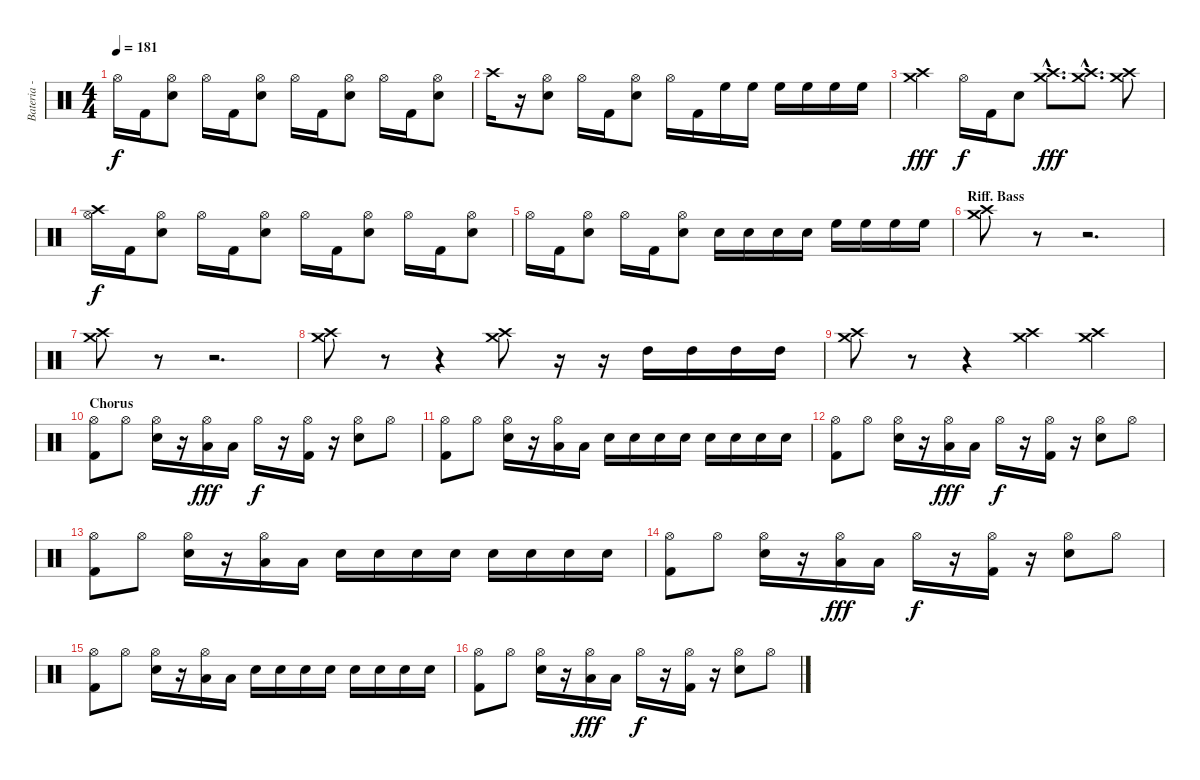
\track ("Bateria - Larzon" "Bateria - ") {instrument percussion}
\staff {score}
\articulation defaults
\ts (4 4)
\tempo 181
\clef neutral
\ks c "Hi-Hat (open)".16{dy f} "Kick (hit) 2".16
("Electric Snare (hit)" "Hi-Hat (open)").8 "Hi-Hat (open)".16 "Kick (hit) 2".16 ("Electric Snare (hit)" "Hi-Hat (open)").8 "Hi-Hat (open)".16 "Kick (hit) 2".16 ("Electric Snare (hit)" "Hi-Hat (open)").8 "Hi-Hat (open)".16 "Kick (hit) 2".16 ("Electric Snare (hit)" "Hi-Hat (open)").8 |
"Crash high (hit)".16 r.16 ("Electric Snare (hit)" "Hi-Hat (open)").8 "Hi-Hat (open)".16 "Kick (hit) 2".16 ("Electric Snare (hit)" "Hi-Hat (open)").8 "Hi-Hat (open)".16 "Kick (hit) 2".16 "High Floor Tom (hit)".16 "High Floor Tom (hit)".16 "High Floor Tom (hit)".16 "High Floor Tom (hit)".16 "High Floor Tom (hit)".16 "High Floor Tom (hit)".16 |
("Crash high (hit)" "Crash medium (hit)").4{dy fff} "Hi-Hat (open)".16{dy f} "Kick (hit) 2".16 "Electric Snare (hit)".8 ("Crash high (hit)"{hac} "Crash medium (hit)"{hac}).8{d dy fff} ("Crash high (hit)"{hac} "Crash medium (hit)"{hac}).8{d} ("Crash high (hit)" "Crash medium (hit)").8 |
("Crash high (hit)" "Hi-Hat (open)").16{dy f} "Kick (hit) 2".16 ("Electric Snare (hit)" "Hi-Hat (open)").8 "Hi-Hat (open)".16 "Kick (hit) 2".16 ("Electric Snare (hit)" "Hi-Hat (open)").8 "Hi-Hat (open)".16 "Kick (hit) 2".16 ("Electric Snare (hit)" "Hi-Hat (open)").8 "Hi-Hat (open)".16 "Kick (hit) 2".16 ("Electric Snare (hit)" "Hi-Hat (open)").8 |
"Hi-Hat (open)".16 "Kick (hit) 2".16 ("Electric Snare (hit)" "Hi-Hat (open)").8 "Hi-Hat (open)".16 "Kick (hit) 2".16 ("Electric Snare (hit)" "Hi-Hat (open)").8 "Electric Snare (hit)".16 "Electric Snare (hit)".16 "Electric Snare (hit)".16 "Electric Snare (hit)".16 "High Floor Tom (hit)".16 "High Floor Tom (hit)".16 "High Floor Tom (hit)".16 "High Floor Tom (hit)".16 |
\section ("" "Riff. Bass")
("Crash medium (hit)" "Crash high (hit)").8 r.8{volume 0} r.2{d} |
("Crash medium (hit)" "Crash high (hit)").8{volume 11} r.8{volume 0} r.2{d} |
("Crash medium (hit)" "Crash high (hit)").8{volume 11} r.8{volume 0} r.4 ("Crash medium (hit)" "Crash high (hit)").8{volume 11} r.16 r.16 "High Tom (hit)".16 "High Tom (hit)".16 "High Tom (hit)".16 "High Tom (hit)".16 |
("Crash medium (hit)" "Crash high (hit)").8{volume 11} r.8 r.4 ("Crash medium (hit)" "Crash high (hit)").4{volume 11} ("Crash medium (hit)" "Crash high (hit)").4{volume 11} |
\section ("" "Chorus")
("Kick (hit) 2" "Hi-Hat (open)").8 "Hi-Hat (open)".8 ("Electric Snare (hit)" "Hi-Hat (open)").16 r.16 ("Low Floor Tom (hit)" "Hi-Hat (open)").16{dy fff} "Low Floor Tom (hit)".16 "Hi-Hat (open)".16{dy f} r.16 ("Kick (hit) 2" "Hi-Hat (open)").16 r.16 ("Electric Snare (hit)" "Hi-Hat (open)").8 "Hi-Hat (open)".8 |
("Kick (hit) 2" "Hi-Hat (open)").8 "Hi-Hat (open)".8 ("Electric Snare (hit)" "Hi-Hat (open)").16 r.16 ("Low Floor Tom (hit)" "Hi-Hat (open)").16 "Low Floor Tom (hit)".16 "Electric Snare (hit)".16 "Electric Snare (hit)".16 "Electric Snare (hit)".16 "Electric Snare (hit)".16 "Electric Snare (hit)".16 "Electric Snare (hit)".16 "Electric Snare (hit)".16 "Electric Snare (hit)".16 |
("Kick (hit) 2" "Hi-Hat (open)").8 "Hi-Hat (open)".8 ("Electric Snare (hit)" "Hi-Hat (open)").16 r.16 ("Low Floor Tom (hit)" "Hi-Hat (open)").16{dy fff} "Low Floor Tom (hit)".16 "Hi-Hat (open)".16{dy f} r.16 ("Kick (hit) 2" "Hi-Hat (open)").16 r.16 ("Electric Snare (hit)" "Hi-Hat (open)").8 "Hi-Hat (open)".8 |
("Kick (hit) 2" "Hi-Hat (open)").8 "Hi-Hat (open)".8 ("Electric Snare (hit)" "Hi-Hat (open)").16 r.16 ("Low Floor Tom (hit)" "Hi-Hat (open)").16 "Low Floor Tom (hit)".16 "Electric Snare (hit)".16 "Electric Snare (hit)".16 "Electric Snare (hit)".16 "Electric Snare (hit)".16 "Electric Snare (hit)".16 "Electric Snare (hit)".16 "Electric Snare (hit)".16 "Electric Snare (hit)".16 |
("Kick (hit) 2" "Hi-Hat (open)").8 "Hi-Hat (open)".8 ("Electric Snare (hit)" "Hi-Hat (open)").16 r.16 ("Low Floor Tom (hit)" "Hi-Hat (open)").16{dy fff} "Low Floor Tom (hit)".16 "Hi-Hat (open)".16{dy f} r.16 ("Kick (hit) 2" "Hi-Hat (open)").16 r.16 ("Electric Snare (hit)" "Hi-Hat (open)").8 "Hi-Hat (open)".8 |
("Kick (hit) 2" "Hi-Hat (open)").8 "Hi-Hat (open)".8 ("Electric Snare (hit)" "Hi-Hat (open)").16 r.16 ("Low Floor Tom (hit)" "Hi-Hat (open)").16 "Low Floor Tom (hit)".16 "Electric Snare (hit)".16 "Electric Snare (hit)".16 "Electric Snare (hit)".16 "Electric Snare (hit)".16 "Electric Snare (hit)".16 "Electric Snare (hit)".16 "Electric Snare (hit)".16 "Electric Snare (hit)".16 |
("Kick (hit) 2" "Hi-Hat (open)").8 "Hi-Hat (open)".8 ("Electric Snare (hit)" "Hi-Hat (open)").16 r.16 ("Low Floor Tom (hit)" "Hi-Hat (open)").16{dy fff} "Low Floor Tom (hit)".16 "Hi-Hat (open)".16{dy f} r.16 ("Kick (hit) 2" "Hi-Hat (open)").16 r.16 ("Electric Snare (hit)" "Hi-Hat (open)").8 "Hi-Hat (open)".8
